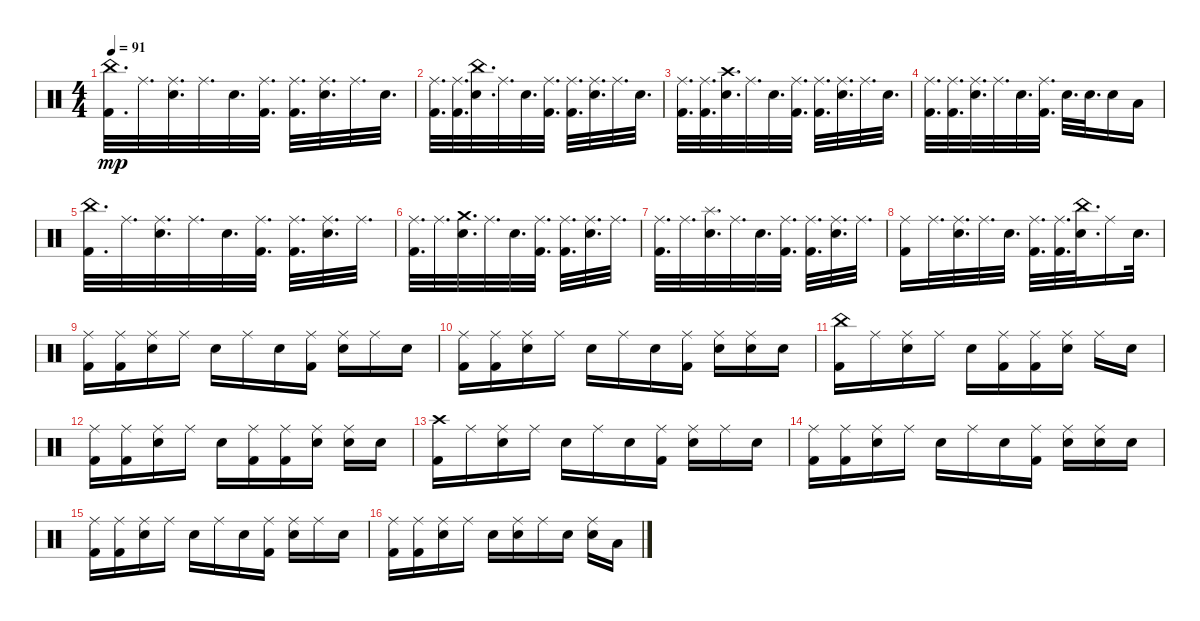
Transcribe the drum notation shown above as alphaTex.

\track "" {instrument percussion}
\staff {score}
\articulation defaults
\ts (4 4)
\tempo 91
\clef neutral
\ks c
("China (hit)" "Kick (hit) 2").32{d dy mp} "Ride (middle)".32{d} ("Electric Snare (hit)" "Ride (middle)").32{d} "Ride (middle)".32{d} "Electric Snare (hit)".32{d} ("Ride (middle)" "Kick (hit) 2").32{d} ("Ride (middle)" "Kick (hit) 2").32{d} ("Ride (middle)" "Electric Snare (hit)").32{d} "Ride (middle)".32{d} "Electric Snare (hit)".32{d} |
("Ride (middle)" "Kick (hit) 2").32{d} ("Ride (middle)" "Kick (hit) 2").32{d} ("Electric Snare (hit)" "China (hit)").32{d} "Ride (middle)".32{d} "Electric Snare (hit)".32{d} ("Kick (hit) 2" "Ride (middle)").32{d} ("Ride (middle)" "Kick (hit) 2").32{d} ("Ride (middle)" "Electric Snare (hit)").32{d} "Ride (middle)".32{d} "Electric Snare (hit)".32{d} |
("Ride (middle)" "Kick (hit) 2").32{d} ("Ride (middle)" "Kick (hit) 2").32{d} ("Electric Snare (hit)" "Crash high (hit)").32{d} "Ride (middle)".32{d} "Electric Snare (hit)".32{d} ("Kick (hit) 2" "Ride (middle)").32{d} ("Ride (middle)" "Kick (hit) 2").32{d} ("Electric Snare (hit)" "Ride (middle)").32{d} "Ride (middle)".32{d} "Electric Snare (hit)".32{d} |
("Kick (hit) 2" "Ride (middle)").32{d} ("Ride (middle)" "Kick (hit) 2").32{d} ("Ride (middle)" "Electric Snare (hit)").32{d} "Ride (middle)".32{d} "Electric Snare (hit)".32{d} ("Kick (hit) 2" "Ride (middle)").32{d} "Electric Snare (hit)".32{d} "Electric Snare (hit)".32{d} "Electric Snare (hit)".16 "Low Tom (hit)".16 |
("Kick (hit) 2" "China (hit)").32{d} "Ride (middle)".32{d} ("Ride (middle)" "Electric Snare (hit)").32{d} "Ride (middle)".32{d} "Electric Snare (hit)".32{d} ("Ride (middle)" "Kick (hit) 2").32{d} ("Kick (hit) 2" "Ride (middle)").32{d} ("Ride (middle)" "Electric Snare (hit)").32{d} "Ride (middle)".32{d} |
("Ride (middle)" "Kick (hit) 2").32{d} "Ride (middle)".32{d} ("Electric Snare (hit)" "Crash medium (hit)").32{d} "Ride (middle)".32{d} "Electric Snare (hit)".32{d} ("Kick (hit) 2" "Ride (middle)").32{d} ("Ride (middle)" "Kick (hit) 2").32{d} ("Ride (middle)" "Electric Snare (hit)").32{d} "Ride (middle)".32{d} |
("Ride (middle)" "Kick (hit) 2").32{d} "Ride (middle)".32{d} ("Splash (hit)" "Electric Snare (hit)").32{d} "Ride (middle)".32{d} "Electric Snare (hit)".32{d} ("Kick (hit) 2" "Ride (middle)").32{d} ("Ride (middle)" "Kick (hit) 2").32{d} ("Ride (middle)" "Electric Snare (hit)").32{d} "Ride (middle)".32{d} |
("Ride (middle)" "Kick (hit) 2").16 "Ride (middle)".32{d} ("Electric Snare (hit)" "Ride (middle)").32{d} "Ride (middle)".32{d} "Electric Snare (hit)".32{d} ("Kick (hit) 2" "Ride (middle)").32{d} ("Ride (middle)" "Kick (hit) 2").32{d} ("Electric Snare (hit)" "China (hit)").32{d} "Ride (middle)".16 "Electric Snare (hit)".32{d} |
("Kick (hit) 2" "Ride (middle)").16 ("Ride (middle)" "Kick (hit) 2").16 ("Electric Snare (hit)" "Ride (middle)").16 "Ride (middle)".16 "Electric Snare (hit)".16 "Ride (middle)".16 "Electric Snare (hit)".16 ("Ride (middle)" "Kick (hit) 2").16 ("Electric Snare (hit)" "Ride (middle)").16 "Ride (middle)".16 "Electric Snare (hit)".16 |
("Kick (hit) 2" "Ride (middle)").16 ("Ride (middle)" "Kick (hit) 2").16 ("Ride (middle)" "Electric Snare (hit)").16 "Ride (middle)".16 "Electric Snare (hit)".16 "Ride (middle)".16 "Electric Snare (hit)".16 ("Kick (hit) 2" "Ride (middle)").16 ("Ride (middle)" "Electric Snare (hit)").16 ("Ride (middle)" "Electric Snare (hit)").16 "Electric Snare (hit)".16 |
("Kick (hit) 2" "China (hit)").16 "Ride (middle)".16 ("Ride (middle)" "Electric Snare (hit)").16 "Ride (middle)".16 "Electric Snare (hit)".16 ("Kick (hit) 2" "Ride (middle)").16 ("Ride (middle)" "Kick (hit) 2").16 ("Ride (middle)" "Electric Snare (hit)").16 "Ride (middle)".16 "Electric Snare (hit)".16 |
("Kick (hit) 2" "Ride (middle)").16 ("Ride (middle)" "Kick (hit) 2").16 ("Ride (middle)" "Electric Snare (hit)").16 "Ride (middle)".16 "Electric Snare (hit)".16 ("Ride (middle)" "Kick (hit) 2").16 ("Ride (middle)" "Kick (hit) 2").16 ("Ride (middle)" "Electric Snare (hit)").16 ("Ride (middle)" "Electric Snare (hit)").16 "Electric Snare (hit)".16 |
("Kick (hit) 2" "Crash high (hit)").16 "Ride (middle)".16 ("Ride (middle)" "Electric Snare (hit)").16 "Ride (middle)".16 "Electric Snare (hit)".16 "Ride (middle)".16 "Electric Snare (hit)".16 ("Ride (middle)" "Kick (hit) 2").16 ("Ride (middle)" "Electric Snare (hit)").16 "Ride (middle)".16 "Electric Snare (hit)".16 |
("Ride (middle)" "Kick (hit) 2").16 ("Ride (middle)" "Kick (hit) 2").16 ("Ride (middle)" "Electric Snare (hit)").16 "Ride (middle)".16 "Electric Snare (hit)".16 "Ride (middle)".16 "Electric Snare (hit)".16 ("Kick (hit) 2" "Ride (middle)").16 ("Ride (middle)" "Electric Snare (hit)").16 ("Ride (middle)" "Electric Snare (hit)").16 "Electric Snare (hit)".16 |
("Ride (middle)" "Kick (hit) 2").16 ("Ride (middle)" "Kick (hit) 2").16 ("Ride (middle)" "Electric Snare (hit)").16 "Ride (middle)".16 "Electric Snare (hit)".16 "Ride (middle)".16 "Electric Snare (hit)".16 ("Ride (middle)" "Kick (hit) 2").16 ("Ride (middle)" "Electric Snare (hit)").16 "Ride (middle)".16 "Electric Snare (hit)".16 |
("Ride (middle)" "Kick (hit) 2").16 ("Ride (middle)" "Kick (hit) 2").16 ("Ride (middle)" "Electric Snare (hit)").16 "Ride (middle)".16 "Electric Snare (hit)".16 ("Ride (middle)" "Electric Snare (hit)").16 "Ride (middle)".16 "Electric Snare (hit)".16 ("Electric Snare (hit)" "Ride (middle)").16 "Low Tom (hit)".16
